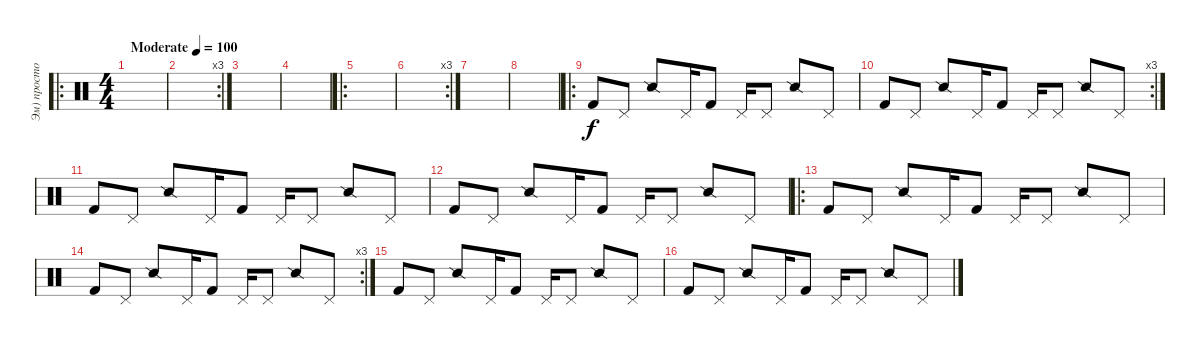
\track ("Эм) просто Артемий" "Эм) просто") {instrument percussion}
\staff {score}
\articulation defaults
\ro
\ts (4 4)
\tempo (100 "Moderate")
\clef neutral
\ks c
|
\rc 3
|
|
|
\ro
|
\rc 3
|
|
|
\ro "Kick (hit) 2".8 "Pedal Hi-Hat (hit)".8 "Snare (side stick) 2".8 "Pedal Hi-Hat (hit)".16 "Kick (hit) 2".8 "Pedal Hi-Hat (hit)".16 "Pedal Hi-Hat (hit)".8 "Snare (side stick) 2".8 "Pedal Hi-Hat (hit)".8
|
\rc 3 "Kick (hit) 2".8 "Pedal Hi-Hat (hit)".8 "Snare (side stick) 2".8 "Pedal Hi-Hat (hit)".16 "Kick (hit) 2".8 "Pedal Hi-Hat (hit)".16 "Pedal Hi-Hat (hit)".8 "Snare (side stick) 2".8 "Pedal Hi-Hat (hit)".8
|
"Kick (hit) 2".8 "Pedal Hi-Hat (hit)".8 "Snare (side stick) 2".8 "Pedal Hi-Hat (hit)".16 "Kick (hit) 2".8 "Pedal Hi-Hat (hit)".16 "Pedal Hi-Hat (hit)".8 "Snare (side stick) 2".8 "Pedal Hi-Hat (hit)".8 |
"Kick (hit) 2".8 "Pedal Hi-Hat (hit)".8 "Snare (side stick) 2".8 "Pedal Hi-Hat (hit)".16 "Kick (hit) 2".8 "Pedal Hi-Hat (hit)".16 "Pedal Hi-Hat (hit)".8 "Snare (side stick) 2".8 "Pedal Hi-Hat (hit)".8 |
\ro "Kick (hit) 2".8 "Pedal Hi-Hat (hit)".8 "Snare (side stick) 2".8 "Pedal Hi-Hat (hit)".16 "Kick (hit) 2".8 "Pedal Hi-Hat (hit)".16 "Pedal Hi-Hat (hit)".8 "Snare (side stick) 2".8 "Pedal Hi-Hat (hit)".8
|
\rc 3 "Kick (hit) 2".8 "Pedal Hi-Hat (hit)".8 "Snare (side stick) 2".8 "Pedal Hi-Hat (hit)".16 "Kick (hit) 2".8 "Pedal Hi-Hat (hit)".16 "Pedal Hi-Hat (hit)".8 "Snare (side stick) 2".8 "Pedal Hi-Hat (hit)".8
|
"Kick (hit) 2".8 "Pedal Hi-Hat (hit)".8 "Snare (side stick) 2".8 "Pedal Hi-Hat (hit)".16 "Kick (hit) 2".8 "Pedal Hi-Hat (hit)".16 "Pedal Hi-Hat (hit)".8 "Snare (side stick) 2".8 "Pedal Hi-Hat (hit)".8 |
"Kick (hit) 2".8 "Pedal Hi-Hat (hit)".8 "Snare (side stick) 2".8 "Pedal Hi-Hat (hit)".16 "Kick (hit) 2".8 "Pedal Hi-Hat (hit)".16 "Pedal Hi-Hat (hit)".8 "Snare (side stick) 2".8 "Pedal Hi-Hat (hit)".8
